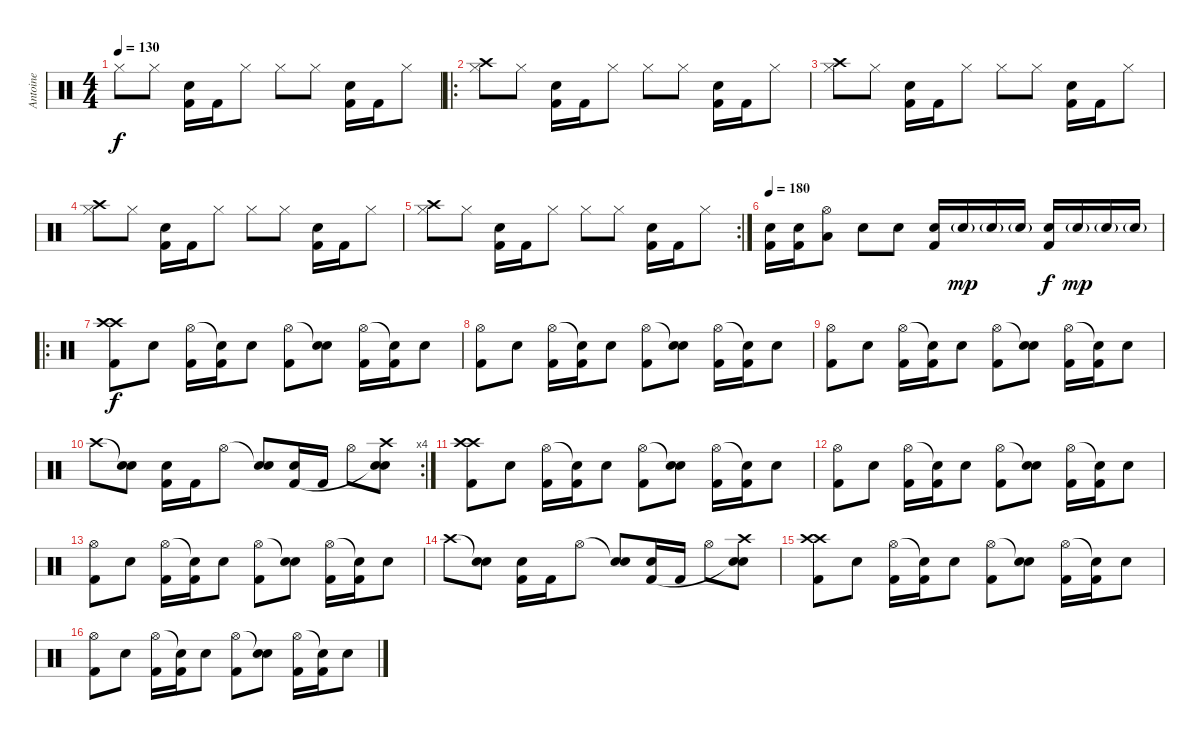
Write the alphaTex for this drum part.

\track ("Antoine" "Antoine") {instrument percussion}
\staff {score}
\articulation defaults
\ts (4 4)
\tempo 130
\clef neutral
\ks c "Hi-Hat (closed)".8{dy f} "Hi-Hat (closed)".8
("Electric Snare (hit)" "Kick (hit) 2").16 "Kick (hit) 2".16 "Hi-Hat (closed)".8 "Hi-Hat (closed)".8 "Hi-Hat (closed)".8 ("Electric Snare (hit)" "Kick (hit) 2").16 "Kick (hit) 2".16 "Hi-Hat (closed)".8 |
\ro
("Crash high (hit)" "Hi-Hat (closed)").8 "Hi-Hat (closed)".8 ("Electric Snare (hit)" "Kick (hit) 2").16 "Kick (hit) 2".16 "Hi-Hat (closed)".8 "Hi-Hat (closed)".8 "Hi-Hat (closed)".8 ("Electric Snare (hit)" "Kick (hit) 2").16 "Kick (hit) 2".16 "Hi-Hat (closed)".8 |
("Crash high (hit)" "Hi-Hat (closed)").8 "Hi-Hat (closed)".8 ("Electric Snare (hit)" "Kick (hit) 2").16 "Kick (hit) 2".16 "Hi-Hat (closed)".8 "Hi-Hat (closed)".8 "Hi-Hat (closed)".8 ("Electric Snare (hit)" "Kick (hit) 2").16 "Kick (hit) 2".16 "Hi-Hat (closed)".8 |
("Crash high (hit)" "Hi-Hat (closed)").8 "Hi-Hat (closed)".8 ("Electric Snare (hit)" "Kick (hit) 2").16 "Kick (hit) 2".16 "Hi-Hat (closed)".8 "Hi-Hat (closed)".8 "Hi-Hat (closed)".8 ("Electric Snare (hit)" "Kick (hit) 2").16 "Kick (hit) 2".16 "Hi-Hat (closed)".8 |
\rc 2
("Crash high (hit)" "Hi-Hat (closed)").8 "Hi-Hat (closed)".8 ("Electric Snare (hit)" "Kick (hit) 2").16 "Kick (hit) 2".16 "Hi-Hat (closed)".8 "Hi-Hat (closed)".8 "Hi-Hat (closed)".8 ("Electric Snare (hit)" "Kick (hit) 2").16 "Kick (hit) 2".16 "Hi-Hat (closed)".8 |
\tempo 180
("Electric Snare (hit)" "Kick (hit) 2").16 ("Electric Snare (hit)" "Kick (hit) 2").16 ("Hi-Hat (open)" "Low Tom (hit)").8 "Electric Snare (hit)".8 "Electric Snare (hit)".8 ("Electric Snare (hit)" "Kick (hit) 2").16 "Electric Snare (hit)"{g}.16{dy mp} "Electric Snare (hit)"{g}.16 "Electric Snare (hit)"{g}.16 ("Electric Snare (hit)" "Kick (hit) 2").16{dy f} "Electric Snare (hit)"{g}.16{dy mp} "Electric Snare (hit)"{g}.16 "Electric Snare (hit)"{g}.16 |
\ro
("Crash high (hit)" "Crash high (hit)" "Kick (hit) 2").8{dy f} "Electric Snare (hit)".8 ("Hi-Hat (open)" "Kick (hit) 2").16 ("Snare (hit)"{t} "Kick (hit) 2").16 "Electric Snare (hit)".8 ("Hi-Hat (open)" "Kick (hit) 2").8 ("Snare (hit)"{t} "Electric Snare (hit)").8 ("Hi-Hat (open)" "Kick (hit) 2").16 ("Snare (hit)"{t} "Kick (hit) 2").16 "Electric Snare (hit)".8 |
("Hi-Hat (open)" "Kick (hit) 2").8 "Electric Snare (hit)".8 ("Hi-Hat (open)" "Kick (hit) 2").16 ("Snare (hit)"{t} "Kick (hit) 2").16 "Electric Snare (hit)".8 ("Hi-Hat (open)" "Kick (hit) 2").8 ("Snare (hit)"{t} "Electric Snare (hit)").8 ("Hi-Hat (open)" "Kick (hit) 2").16 ("Snare (hit)"{t} "Kick (hit) 2").16 "Electric Snare (hit)".8 |
("Hi-Hat (open)" "Kick (hit) 2").8 "Electric Snare (hit)".8 ("Hi-Hat (open)" "Kick (hit) 2").16 ("Snare (hit)"{t} "Kick (hit) 2").16 "Electric Snare (hit)".8 ("Hi-Hat (open)" "Kick (hit) 2").8 ("Snare (hit)"{t} "Electric Snare (hit)").8 ("Hi-Hat (open)" "Kick (hit) 2").16 ("Snare (hit)"{t} "Kick (hit) 2").16 "Electric Snare (hit)".8 |
\rc 4 "Crash high (hit)".8
("Snare (hit)"{t} "Electric Snare (hit)").8 ("Electric Snare (hit)" "Kick (hit) 2").16 "Kick (hit) 2".16 "Hi-Hat (open)".8 ("Snare (hit)"{t} "Electric Snare (hit)").8 ("Electric Snare (hit)" "Kick (hit) 2").16 "Kick (hit) 2".16 "Hi-Hat (open)".8 ("Crash high (hit)" "Snare (hit)"{t} "Electric Snare (hit)").8 |
("Crash high (hit)" "Crash high (hit)" "Kick (hit) 2").8 "Electric Snare (hit)".8 ("Hi-Hat (open)" "Kick (hit) 2").16 ("Snare (hit)"{t} "Kick (hit) 2").16 "Electric Snare (hit)".8 ("Hi-Hat (open)" "Kick (hit) 2").8 ("Snare (hit)"{t} "Electric Snare (hit)").8 ("Hi-Hat (open)" "Kick (hit) 2").16 ("Snare (hit)"{t} "Kick (hit) 2").16 "Electric Snare (hit)".8 |
("Hi-Hat (open)" "Kick (hit) 2").8 "Electric Snare (hit)".8 ("Hi-Hat (open)" "Kick (hit) 2").16 ("Snare (hit)"{t} "Kick (hit) 2").16 "Electric Snare (hit)".8 ("Hi-Hat (open)" "Kick (hit) 2").8 ("Snare (hit)"{t} "Electric Snare (hit)").8 ("Hi-Hat (open)" "Kick (hit) 2").16 ("Snare (hit)"{t} "Kick (hit) 2").16 "Electric Snare (hit)".8 |
("Hi-Hat (open)" "Kick (hit) 2").8 "Electric Snare (hit)".8 ("Hi-Hat (open)" "Kick (hit) 2").16 ("Snare (hit)"{t} "Kick (hit) 2").16 "Electric Snare (hit)".8 ("Hi-Hat (open)" "Kick (hit) 2").8 ("Snare (hit)"{t} "Electric Snare (hit)").8 ("Hi-Hat (open)" "Kick (hit) 2").16 ("Snare (hit)"{t} "Kick (hit) 2").16 "Electric Snare (hit)".8 |
"Crash high (hit)".8 ("Snare (hit)"{t} "Electric Snare (hit)").8 ("Electric Snare (hit)" "Kick (hit) 2").16 "Kick (hit) 2".16 "Hi-Hat (open)".8 ("Snare (hit)"{t} "Electric Snare (hit)").8 ("Electric Snare (hit)" "Kick (hit) 2").16 "Kick (hit) 2".16 "Hi-Hat (open)".8 ("Crash high (hit)" "Snare (hit)"{t} "Electric Snare (hit)").8 |
("Crash high (hit)" "Crash high (hit)" "Kick (hit) 2").8 "Electric Snare (hit)".8 ("Hi-Hat (open)" "Kick (hit) 2").16 ("Snare (hit)"{t} "Kick (hit) 2").16 "Electric Snare (hit)".8 ("Hi-Hat (open)" "Kick (hit) 2").8 ("Snare (hit)"{t} "Electric Snare (hit)").8 ("Hi-Hat (open)" "Kick (hit) 2").16 ("Snare (hit)"{t} "Kick (hit) 2").16 "Electric Snare (hit)".8 |
("Hi-Hat (open)" "Kick (hit) 2").8 "Electric Snare (hit)".8 ("Hi-Hat (open)" "Kick (hit) 2").16 ("Snare (hit)"{t} "Kick (hit) 2").16 "Electric Snare (hit)".8 ("Hi-Hat (open)" "Kick (hit) 2").8 ("Snare (hit)"{t} "Electric Snare (hit)").8 ("Hi-Hat (open)" "Kick (hit) 2").16 ("Snare (hit)"{t} "Kick (hit) 2").16 "Electric Snare (hit)".8
